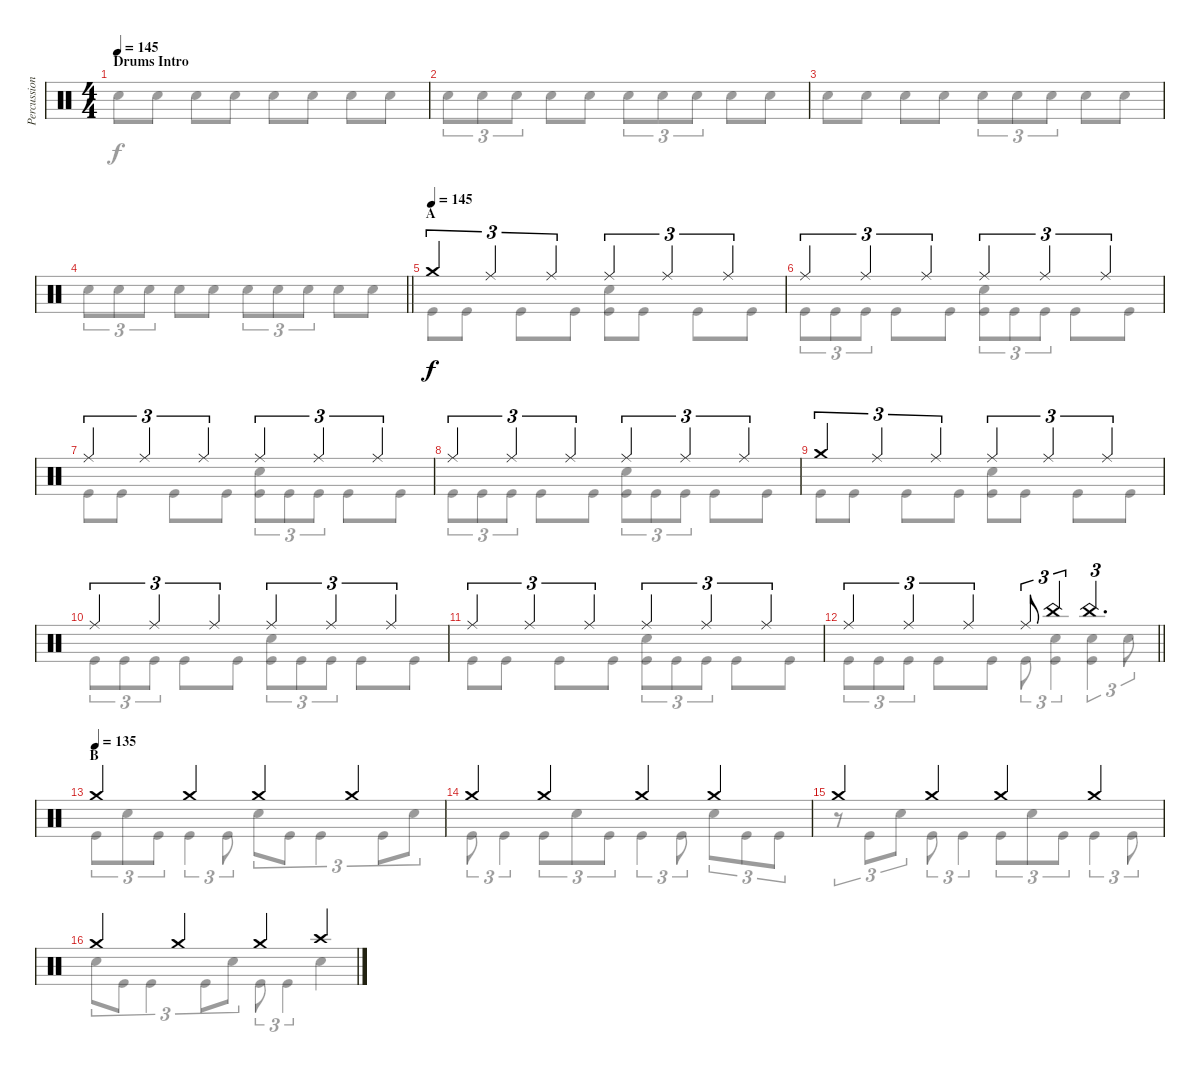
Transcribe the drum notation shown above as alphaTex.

\track ("Percussions" "Percussion") {instrument percussion}
\staff {score}
\articulation defaults
\voice
\ts (4 4)
\section ("" "Drums Intro")
\tempo 145
\clef neutral
\ks c
|
|
|
\barLineRight lightlight
|
\section ("" "A")
\tempo (145)
"Crash medium (hit)".4{tu (3 2)} "Ride (middle)".4{tu (3 2)} "Ride (middle)".4{tu (3 2)} "Ride (middle)".4{tu (3 2)} "Ride (middle)".4{tu (3 2)} "Ride (middle)".4{tu (3 2)} |
"Ride (middle)".4{tu (3 2)} "Ride (middle)".4{tu (3 2)} "Ride (middle)".4{tu (3 2)} "Ride (middle)".4{tu (3 2)} "Ride (middle)".4{tu (3 2)} "Ride (middle)".4{tu (3 2)} |
"Ride (middle)".4{tu (3 2)} "Ride (middle)".4{tu (3 2)} "Ride (middle)".4{tu (3 2)} "Ride (middle)".4{tu (3 2)} "Ride (middle)".4{tu (3 2)} "Ride (middle)".4{tu (3 2)} |
"Ride (middle)".4{tu (3 2)} "Ride (middle)".4{tu (3 2)} "Ride (middle)".4{tu (3 2)} "Ride (middle)".4{tu (3 2)} "Ride (middle)".4{tu (3 2)} "Ride (middle)".4{tu (3 2)} |
"Crash medium (hit)".4{tu (3 2)} "Ride (middle)".4{tu (3 2)} "Ride (middle)".4{tu (3 2)} "Ride (middle)".4{tu (3 2)} "Ride (middle)".4{tu (3 2)} "Ride (middle)".4{tu (3 2)} |
"Ride (middle)".4{tu (3 2)} "Ride (middle)".4{tu (3 2)} "Ride (middle)".4{tu (3 2)} "Ride (middle)".4{tu (3 2)} "Ride (middle)".4{tu (3 2)} "Ride (middle)".4{tu (3 2)} |
"Ride (middle)".4{tu (3 2)} "Ride (middle)".4{tu (3 2)} "Ride (middle)".4{tu (3 2)} "Ride (middle)".4{tu (3 2)} "Ride (middle)".4{tu (3 2)} "Ride (middle)".4{tu (3 2)} |
\barLineRight lightlight "Ride (middle)".4{tu (3 2)} "Ride (middle)".4{tu (3 2)} "Ride (middle)".4{tu (3 2)} "Ride (middle)".8{tu (3 2)} "China (hit)".4{tu (3 2)} "China (hit)".4{d tu (3 2)}
|
\section ("" "B")
\tempo (135)
"Crash medium (hit)".4 "Crash medium (hit)".4 "Crash medium (hit)".4 "Crash medium (hit)".4 |
"Crash medium (hit)".4 "Crash medium (hit)".4 "Crash medium (hit)".4 "Crash medium (hit)".4 |
"Crash medium (hit)".4 "Crash medium (hit)".4 "Crash medium (hit)".4 "Crash medium (hit)".4 |
"Crash medium (hit)".4 "Crash medium (hit)".4 "Crash medium (hit)".4 "Crash high (hit)".4
\voice
\clef neutral
\ottava regular
\simile none
\ks c "Snare (hit) 2".8{dy f} "Snare (hit) 2".8 "Snare (hit) 2".8 "Snare (hit) 2".8 "Snare (hit) 2".8 "Snare (hit) 2".8 "Snare (hit) 2".8 "Snare (hit) 2".8
|
"Snare (hit) 2".8{tu (3 2)} "Snare (hit) 2".8{tu (3 2)} "Snare (hit) 2".8{tu (3 2)} "Snare (hit) 2".8 "Snare (hit) 2".8 "Snare (hit) 2".8{tu (3 2)} "Snare (hit) 2".8{tu (3 2)} "Snare (hit) 2".8{tu (3 2)} "Snare (hit) 2".8 "Snare (hit) 2".8 |
"Snare (hit) 2".8 "Snare (hit) 2".8 "Snare (hit) 2".8 "Snare (hit) 2".8 "Snare (hit) 2".8{tu (3 2)} "Snare (hit) 2".8{tu (3 2)} "Snare (hit) 2".8{tu (3 2)} "Snare (hit) 2".8 "Snare (hit) 2".8 |
\barLineRight lightlight "Snare (hit) 2".8{tu (3 2)} "Snare (hit) 2".8{tu (3 2)} "Snare (hit) 2".8{tu (3 2)} "Snare (hit) 2".8 "Snare (hit) 2".8 "Snare (hit) 2".8{tu (3 2)} "Snare (hit) 2".8{tu (3 2)} "Snare (hit) 2".8{tu (3 2)} "Snare (hit) 2".8 "Snare (hit) 2".8
|
"Kick (hit)".8 "Kick (hit)".8 "Kick (hit)".8 "Kick (hit)".8 ("Snare (hit) 2" "Kick (hit)").8 "Kick (hit)".8 "Kick (hit)".8 "Kick (hit)".8 |
"Kick (hit)".8{tu (3 2)} "Kick (hit)".8{tu (3 2)} "Kick (hit)".8{tu (3 2)} "Kick (hit)".8 "Kick (hit)".8 ("Snare (hit) 2" "Kick (hit)").8{tu (3 2)} "Kick (hit)".8{tu (3 2)} "Kick (hit)".8{tu (3 2)} "Kick (hit)".8 "Kick (hit)".8 |
"Kick (hit)".8 "Kick (hit)".8 "Kick (hit)".8 "Kick (hit)".8 ("Snare (hit) 2" "Kick (hit)").8{tu (3 2)} "Kick (hit)".8{tu (3 2)} "Kick (hit)".8{tu (3 2)} "Kick (hit)".8 "Kick (hit)".8 |
"Kick (hit)".8{tu (3 2)} "Kick (hit)".8{tu (3 2)} "Kick (hit)".8{tu (3 2)} "Kick (hit)".8 "Kick (hit)".8 ("Snare (hit) 2" "Kick (hit)").8{tu (3 2)} "Kick (hit)".8{tu (3 2)} "Kick (hit)".8{tu (3 2)} "Kick (hit)".8 "Kick (hit)".8 |
"Kick (hit)".8 "Kick (hit)".8 "Kick (hit)".8 "Kick (hit)".8 ("Snare (hit) 2" "Kick (hit)").8 "Kick (hit)".8 "Kick (hit)".8 "Kick (hit)".8 |
"Kick (hit)".8{tu (3 2)} "Kick (hit)".8{tu (3 2)} "Kick (hit)".8{tu (3 2)} "Kick (hit)".8 "Kick (hit)".8 ("Snare (hit) 2" "Kick (hit)").8{tu (3 2)} "Kick (hit)".8{tu (3 2)} "Kick (hit)".8{tu (3 2)} "Kick (hit)".8 "Kick (hit)".8 |
"Kick (hit)".8 "Kick (hit)".8 "Kick (hit)".8 "Kick (hit)".8 ("Snare (hit) 2" "Kick (hit)").8{tu (3 2)} "Kick (hit)".8{tu (3 2)} "Kick (hit)".8{tu (3 2)} "Kick (hit)".8 "Kick (hit)".8 |
\barLineRight lightlight "Kick (hit)".8{tu (3 2)} "Kick (hit)".8{tu (3 2)} "Kick (hit)".8{tu (3 2)} "Kick (hit)".8 "Kick (hit)".8 "Kick (hit)".8{tu (3 2)}
("Snare (hit) 2" "Kick (hit)").4{tu (3 2)} ("Snare (hit) 2" "Kick (hit)").4{tu (3 2)} "Snare (hit) 2".8{tu (3 2)} |
"Kick (hit)".8{tu (3 2)} "Snare (hit) 2".8{tu (3 2)} "Kick (hit)".8{tu (3 2)} "Kick (hit)".4{tu (3 2)} "Kick (hit)".8{tu (3 2)} "Snare (hit) 2".8{tu (3 2)} "Kick (hit)".8{tu (3 2)} "Kick (hit)".4{tu (3 2)} "Kick (hit)".8{tu (3 2)} "Snare (hit) 2".8{tu (3 2)} |
"Kick (hit)".8{tu (3 2)} "Kick (hit)".4{tu (3 2)} "Kick (hit)".8{tu (3 2)} "Snare (hit) 2".8{tu (3 2)} "Kick (hit)".8{tu (3 2)} "Kick (hit)".4{tu (3 2)} "Kick (hit)".8{tu (3 2)} "Snare (hit) 2".8{tu (3 2)} "Kick (hit)".8{tu (3 2)} "Kick (hit)".8{tu (3 2)} |
r.8{tu (3 2)} "Kick (hit)".8{tu (3 2)} "Snare (hit) 2".8{tu (3 2)} "Kick (hit)".8{tu (3 2)} "Kick (hit)".4{tu (3 2)} "Kick (hit)".8{tu (3 2)} "Snare (hit) 2".8{tu (3 2)} "Kick (hit)".8{tu (3 2)} "Kick (hit)".4{tu (3 2)} "Kick (hit)".8{tu (3 2)} |
"Snare (hit) 2".8{tu (3 2)} "Kick (hit)".8{tu (3 2)} "Kick (hit)".4{tu (3 2)} "Kick (hit)".8{tu (3 2)} "Snare (hit) 2".8{tu (3 2)} "Kick (hit)".8{tu (3 2)} "Kick (hit)".4{tu (3 2)} "Snare (hit) 2".4
